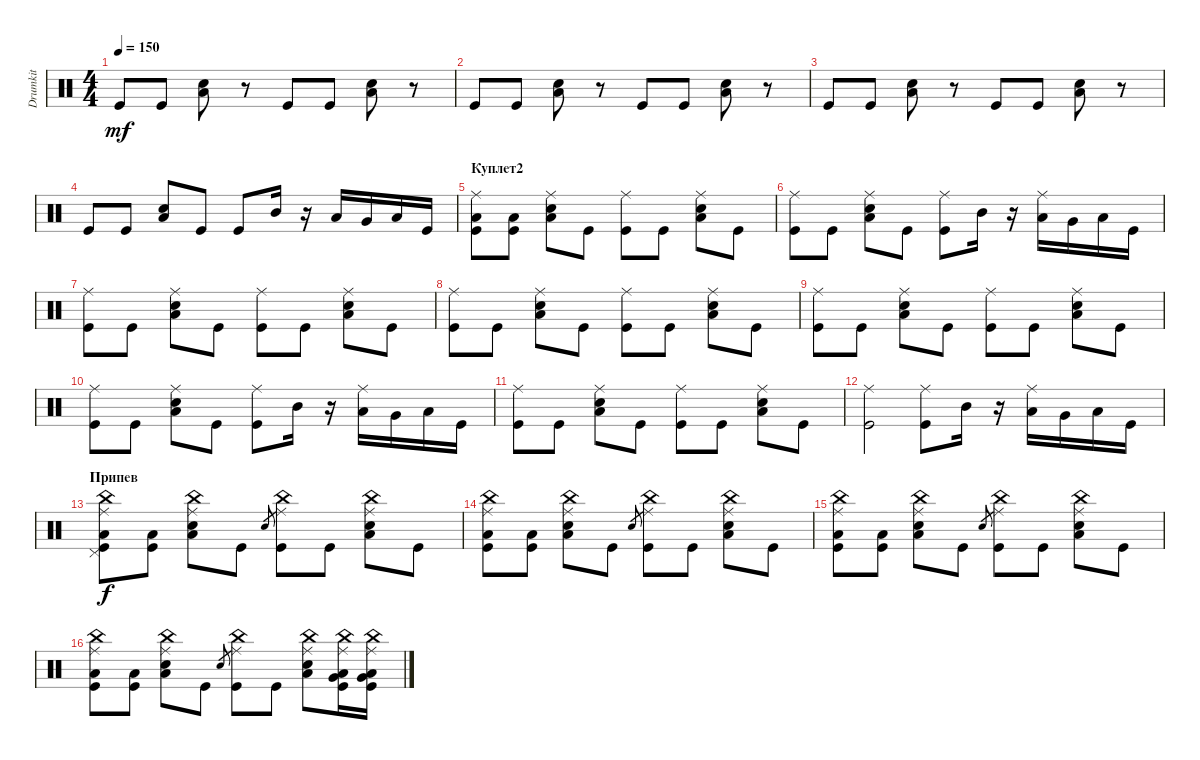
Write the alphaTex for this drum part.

\track ("Drumkit" "Drumkit") {instrument percussion}
\staff {score}
\articulation defaults
\ts (4 4)
\tempo 150
\clef neutral
\ks c "Kick (hit)".8{dy mf} "Kick (hit)".8
("Snare (hit) 2" "Low Floor Tom (hit)").8 r.8 "Kick (hit)".8 "Kick (hit)".8 ("Snare (hit) 2" "Low Floor Tom (hit)").8 r.8 |
"Kick (hit)".8 "Kick (hit)".8 ("Snare (hit) 2" "Low Floor Tom (hit)").8 r.8 "Kick (hit)".8 "Kick (hit)".8 ("Snare (hit) 2" "Low Floor Tom (hit)").8 r.8 |
"Kick (hit)".8 "Kick (hit)".8 ("Snare (hit) 2" "Low Floor Tom (hit)").8 r.8 "Kick (hit)".8 "Kick (hit)".8 ("Snare (hit) 2" "Low Floor Tom (hit)").8 r.8 |
"Kick (hit)".8 "Kick (hit)".8 ("Low Floor Tom (hit)" "Snare (hit) 2").8 "Kick (hit)".8 "Kick (hit)".8 "Mid Tom (hit)".16 r.16 "Low Tom (hit)".16 "Very Low Tom (hit)".16 "Low Floor Tom (hit)".16 "Kick (hit)".16 |
\section ("" "Куплет2")
("Kick (hit)" "Ride (middle)" "Low Floor Tom (hit)").8 ("Kick (hit)" "Low Floor Tom (hit)").8 ("Snare (hit) 2" "Ride (middle)" "Low Floor Tom (hit)").8 "Kick (hit)".8 ("Kick (hit)" "Ride (middle)").8 "Kick (hit)".8 ("Snare (hit) 2" "Ride (middle)" "Low Floor Tom (hit)").8 "Kick (hit)".8 |
("Kick (hit)" "Ride (middle)").8 "Kick (hit)".8 ("Snare (hit) 2" "Ride (middle)" "Low Floor Tom (hit)").8 "Kick (hit)".8 ("Kick (hit)" "Ride (middle)").8 "Mid Tom (hit)".16 r.16 ("Low Tom (hit)" "Ride (middle)").16 "Very Low Tom (hit)".16 "Low Floor Tom (hit)".16 "Kick (hit)".16 |
("Kick (hit)" "Ride (middle)").8 "Kick (hit)".8 ("Snare (hit) 2" "Ride (middle)" "Low Floor Tom (hit)").8 "Kick (hit)".8 ("Kick (hit)" "Ride (middle)").8 "Kick (hit)".8 ("Snare (hit) 2" "Ride (middle)" "Low Floor Tom (hit)").8 "Kick (hit)".8 |
("Kick (hit)" "Ride (middle)").8 "Kick (hit)".8 ("Snare (hit) 2" "Ride (middle)" "Low Floor Tom (hit)").8 "Kick (hit)".8 ("Kick (hit)" "Ride (middle)").8 "Kick (hit)".8 ("Snare (hit) 2" "Ride (middle)" "Low Floor Tom (hit)").8 "Kick (hit)".8 |
("Kick (hit)" "Ride (middle)").8 "Kick (hit)".8 ("Snare (hit) 2" "Ride (middle)" "Low Floor Tom (hit)").8 "Kick (hit)".8 ("Kick (hit)" "Ride (middle)").8 "Kick (hit)".8 ("Snare (hit) 2" "Ride (middle)" "Low Floor Tom (hit)").8 "Kick (hit)".8 |
("Kick (hit)" "Ride (middle)").8 "Kick (hit)".8 ("Snare (hit) 2" "Ride (middle)" "Low Floor Tom (hit)").8 "Kick (hit)".8 ("Kick (hit)" "Ride (middle)").8 "Mid Tom (hit)".16 r.16 ("Low Tom (hit)" "Ride (middle)").16 "Very Low Tom (hit)".16 "Low Floor Tom (hit)".16 "Kick (hit)".16 |
("Kick (hit)" "Ride (middle)").8 "Kick (hit)".8 ("Snare (hit) 2" "Ride (middle)" "Low Floor Tom (hit)").8 "Kick (hit)".8 ("Kick (hit)" "Ride (middle)").8 "Kick (hit)".8 ("Snare (hit) 2" "Ride (middle)" "Low Floor Tom (hit)").8 "Kick (hit)".8 |
("Kick (hit)" "Ride (middle)").2 ("Kick (hit)" "Ride (middle)").8 "Mid Tom (hit)".16 r.16 ("Low Tom (hit)" "Ride (middle)").16 "Very Low Tom (hit)".16 "Low Floor Tom (hit)".16 "Kick (hit)".16 |
\section ("" "Припев")
("Kick (hit)" "Ride (middle)" "Low Floor Tom (hit)" "Pedal Hi-Hat (hit)" "China (hit)").8{dy f} ("Kick (hit)" "Low Floor Tom (hit)").8 ("Snare (hit) 2" "Ride (middle)" "Low Floor Tom (hit)" "China (hit)").8 "Kick (hit)".8 "Snare (hit)".8{gr} ("Kick (hit)" "Ride (middle)" "China (hit)").8 "Kick (hit)".8 ("Snare (hit) 2" "Ride (middle)" "Low Floor Tom (hit)" "China (hit)").8 "Kick (hit)".8 |
("Kick (hit)" "Ride (middle)" "Low Floor Tom (hit)" "China (hit)").8 ("Kick (hit)" "Low Floor Tom (hit)").8 ("Snare (hit) 2" "Ride (middle)" "Low Floor Tom (hit)" "China (hit)").8 "Kick (hit)".8 "Snare (hit)".8{gr} ("Kick (hit)" "Ride (middle)" "China (hit)").8 "Kick (hit)".8 ("Snare (hit) 2" "Ride (middle)" "Low Floor Tom (hit)" "China (hit)").8 "Kick (hit)".8 |
("Kick (hit)" "Ride (middle)" "Low Floor Tom (hit)" "China (hit)").8 ("Kick (hit)" "Low Floor Tom (hit)").8 ("Snare (hit) 2" "Ride (middle)" "Low Floor Tom (hit)" "China (hit)").8 "Kick (hit)".8 "Snare (hit)".8{gr} ("Kick (hit)" "Ride (middle)" "China (hit)").8 "Kick (hit)".8 ("Snare (hit) 2" "Ride (middle)" "Low Floor Tom (hit)" "China (hit)").8 "Kick (hit)".8 |
("Kick (hit)" "Ride (middle)" "Low Floor Tom (hit)" "China (hit)").8 ("Kick (hit)" "Low Floor Tom (hit)").8 ("Snare (hit) 2" "Ride (middle)" "Low Floor Tom (hit)" "China (hit)").8 "Kick (hit)".8 "Snare (hit)".8{gr} ("Kick (hit)" "Ride (middle)" "China (hit)").8 "Kick (hit)".8 ("Snare (hit) 2" "Ride (middle)" "Low Floor Tom (hit)" "China (hit)").8 ("Kick (hit)" "Very Low Tom (hit)" "Low Tom (hit)" "Ride (middle)" "China (hit)").16 ("Kick (hit)" "Very Low Tom (hit)" "Low Tom (hit)" "Ride (middle)" "China (hit)").16
